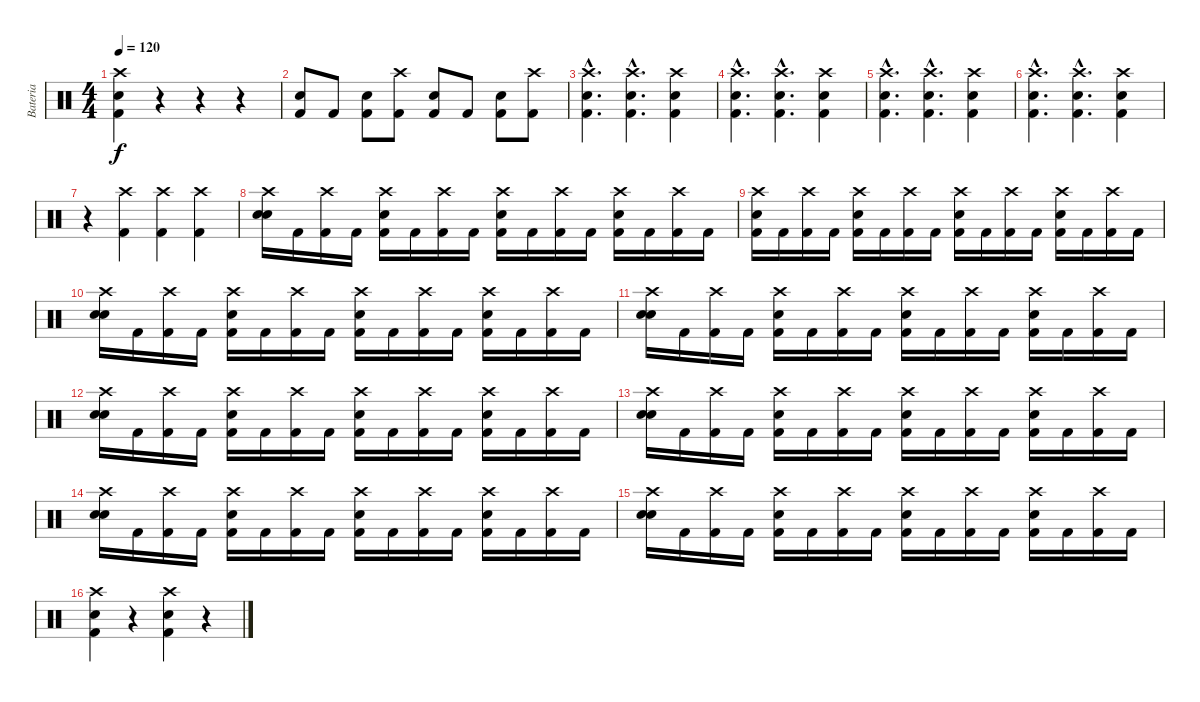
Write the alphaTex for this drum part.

\track ("Bateria" "Bateria") {instrument percussion}
\staff {score}
\articulation defaults
\ts (4 4)
\tempo 120
\clef neutral
\ks c
("Kick (hit) 2" "Electric Snare (hit)" "Crash high (hit)").4{dy f} r.4 r.4 r.4 |
("Kick (hit) 2" "Electric Snare (hit)").8 "Kick (hit) 2".8 ("Kick (hit) 2" "Electric Snare (hit)").8 ("Kick (hit) 2" "Crash high (hit)").8 ("Kick (hit) 2" "Electric Snare (hit)").8 "Kick (hit) 2".8 ("Kick (hit) 2" "Electric Snare (hit)").8 ("Kick (hit) 2" "Crash high (hit)").8 |
("Electric Snare (hit)"{hac} "Crash high (hit)"{hac} "Kick (hit) 2"{hac}).4{d} ("Kick (hit) 2"{hac} "Electric Snare (hit)"{hac} "Crash high (hit)"{hac}).4{d} ("Kick (hit) 2" "Electric Snare (hit)" "Crash high (hit)").4 |
("Electric Snare (hit)"{hac} "Crash high (hit)"{hac} "Kick (hit) 2"{hac}).4{d} ("Kick (hit) 2"{hac} "Electric Snare (hit)"{hac} "Crash high (hit)"{hac}).4{d} ("Kick (hit) 2" "Electric Snare (hit)" "Crash high (hit)").4 |
("Electric Snare (hit)"{hac} "Crash high (hit)"{hac} "Kick (hit) 2"{hac}).4{d} ("Kick (hit) 2"{hac} "Electric Snare (hit)"{hac} "Crash high (hit)"{hac}).4{d} ("Kick (hit) 2" "Electric Snare (hit)" "Crash high (hit)").4 |
("Electric Snare (hit)"{hac} "Crash high (hit)"{hac} "Kick (hit) 2"{hac}).4{d} ("Kick (hit) 2"{hac} "Electric Snare (hit)"{hac} "Crash high (hit)"{hac}).4{d} ("Kick (hit) 2" "Electric Snare (hit)" "Crash high (hit)").4 |
r.4 ("Crash high (hit)" "Kick (hit) 2").4 ("Crash high (hit)" "Kick (hit) 2").4 ("Kick (hit) 2" "Crash high (hit)").4 |
("Crash high (hit)" "Electric Snare (hit)" "Electric Snare (hit)").16 "Kick (hit) 2".16 ("Kick (hit) 2" "Crash high (hit)").16 "Kick (hit) 2".16 ("Crash high (hit)" "Kick (hit) 2" "Electric Snare (hit)").16 "Kick (hit) 2".16 ("Kick (hit) 2" "Crash high (hit)").16 "Kick (hit) 2".16 ("Kick (hit) 2" "Crash high (hit)" "Electric Snare (hit)").16 "Kick (hit) 2".16 ("Kick (hit) 2" "Crash high (hit)").16 "Kick (hit) 2".16 ("Kick (hit) 2" "Electric Snare (hit)" "Crash high (hit)").16 "Kick (hit) 2".16 ("Crash high (hit)" "Kick (hit) 2").16 "Kick (hit) 2".16 |
("Crash high (hit)" "Electric Snare (hit)" "Kick (hit) 2").16 "Kick (hit) 2".16 ("Kick (hit) 2" "Crash high (hit)").16 "Kick (hit) 2".16 ("Crash high (hit)" "Kick (hit) 2" "Electric Snare (hit)").16 "Kick (hit) 2".16 ("Kick (hit) 2" "Crash high (hit)").16 "Kick (hit) 2".16 ("Kick (hit) 2" "Electric Snare (hit)" "Crash high (hit)").16 "Kick (hit) 2".16 ("Kick (hit) 2" "Crash high (hit)").16 "Kick (hit) 2".16 ("Kick (hit) 2" "Electric Snare (hit)" "Crash high (hit)").16 "Kick (hit) 2".16 ("Crash high (hit)" "Kick (hit) 2").16 "Kick (hit) 2".16 |
("Crash high (hit)" "Electric Snare (hit)" "Electric Snare (hit)").16 "Kick (hit) 2".16 ("Kick (hit) 2" "Crash high (hit)").16 "Kick (hit) 2".16 ("Crash high (hit)" "Kick (hit) 2" "Electric Snare (hit)").16 "Kick (hit) 2".16 ("Kick (hit) 2" "Crash high (hit)").16 "Kick (hit) 2".16 ("Kick (hit) 2" "Crash high (hit)" "Electric Snare (hit)").16 "Kick (hit) 2".16 ("Kick (hit) 2" "Crash high (hit)").16 "Kick (hit) 2".16 ("Kick (hit) 2" "Electric Snare (hit)" "Crash high (hit)").16 "Kick (hit) 2".16 ("Crash high (hit)" "Kick (hit) 2").16 "Kick (hit) 2".16 |
("Crash high (hit)" "Electric Snare (hit)" "Electric Snare (hit)").16 "Kick (hit) 2".16 ("Kick (hit) 2" "Crash high (hit)").16 "Kick (hit) 2".16 ("Crash high (hit)" "Kick (hit) 2" "Electric Snare (hit)").16 "Kick (hit) 2".16 ("Kick (hit) 2" "Crash high (hit)").16 "Kick (hit) 2".16 ("Kick (hit) 2" "Crash high (hit)" "Electric Snare (hit)").16 "Kick (hit) 2".16 ("Kick (hit) 2" "Crash high (hit)").16 "Kick (hit) 2".16 ("Kick (hit) 2" "Electric Snare (hit)" "Crash high (hit)").16 "Kick (hit) 2".16 ("Crash high (hit)" "Kick (hit) 2").16 "Kick (hit) 2".16 |
("Crash high (hit)" "Electric Snare (hit)" "Electric Snare (hit)").16 "Kick (hit) 2".16 ("Kick (hit) 2" "Crash high (hit)").16 "Kick (hit) 2".16 ("Crash high (hit)" "Kick (hit) 2" "Electric Snare (hit)").16 "Kick (hit) 2".16 ("Kick (hit) 2" "Crash high (hit)").16 "Kick (hit) 2".16 ("Kick (hit) 2" "Crash high (hit)" "Electric Snare (hit)").16 "Kick (hit) 2".16 ("Kick (hit) 2" "Crash high (hit)").16 "Kick (hit) 2".16 ("Kick (hit) 2" "Electric Snare (hit)" "Crash high (hit)").16 "Kick (hit) 2".16 ("Crash high (hit)" "Kick (hit) 2").16 "Kick (hit) 2".16 |
("Crash high (hit)" "Electric Snare (hit)" "Electric Snare (hit)").16 "Kick (hit) 2".16 ("Kick (hit) 2" "Crash high (hit)").16 "Kick (hit) 2".16 ("Crash high (hit)" "Kick (hit) 2" "Electric Snare (hit)").16 "Kick (hit) 2".16 ("Kick (hit) 2" "Crash high (hit)").16 "Kick (hit) 2".16 ("Kick (hit) 2" "Crash high (hit)" "Electric Snare (hit)").16 "Kick (hit) 2".16 ("Kick (hit) 2" "Crash high (hit)").16 "Kick (hit) 2".16 ("Kick (hit) 2" "Electric Snare (hit)" "Crash high (hit)").16 "Kick (hit) 2".16 ("Crash high (hit)" "Kick (hit) 2").16 "Kick (hit) 2".16 |
("Crash high (hit)" "Electric Snare (hit)" "Electric Snare (hit)").16 "Kick (hit) 2".16 ("Kick (hit) 2" "Crash high (hit)").16 "Kick (hit) 2".16 ("Crash high (hit)" "Kick (hit) 2" "Electric Snare (hit)").16 "Kick (hit) 2".16 ("Kick (hit) 2" "Crash high (hit)").16 "Kick (hit) 2".16 ("Kick (hit) 2" "Crash high (hit)" "Electric Snare (hit)").16 "Kick (hit) 2".16 ("Kick (hit) 2" "Crash high (hit)").16 "Kick (hit) 2".16 ("Kick (hit) 2" "Electric Snare (hit)" "Crash high (hit)").16 "Kick (hit) 2".16 ("Crash high (hit)" "Kick (hit) 2").16 "Kick (hit) 2".16 |
("Crash high (hit)" "Electric Snare (hit)" "Electric Snare (hit)").16 "Kick (hit) 2".16 ("Kick (hit) 2" "Crash high (hit)").16 "Kick (hit) 2".16 ("Crash high (hit)" "Kick (hit) 2" "Electric Snare (hit)").16 "Kick (hit) 2".16 ("Kick (hit) 2" "Crash high (hit)").16 "Kick (hit) 2".16 ("Kick (hit) 2" "Crash high (hit)" "Electric Snare (hit)").16 "Kick (hit) 2".16 ("Kick (hit) 2" "Crash high (hit)").16 "Kick (hit) 2".16 ("Kick (hit) 2" "Electric Snare (hit)" "Crash high (hit)").16 "Kick (hit) 2".16 ("Crash high (hit)" "Kick (hit) 2").16 "Kick (hit) 2".16 |
("Crash high (hit)" "Electric Snare (hit)" "Kick (hit) 2").4 r.4 ("Kick (hit) 2" "Crash high (hit)" "Electric Snare (hit)").4 r.4
